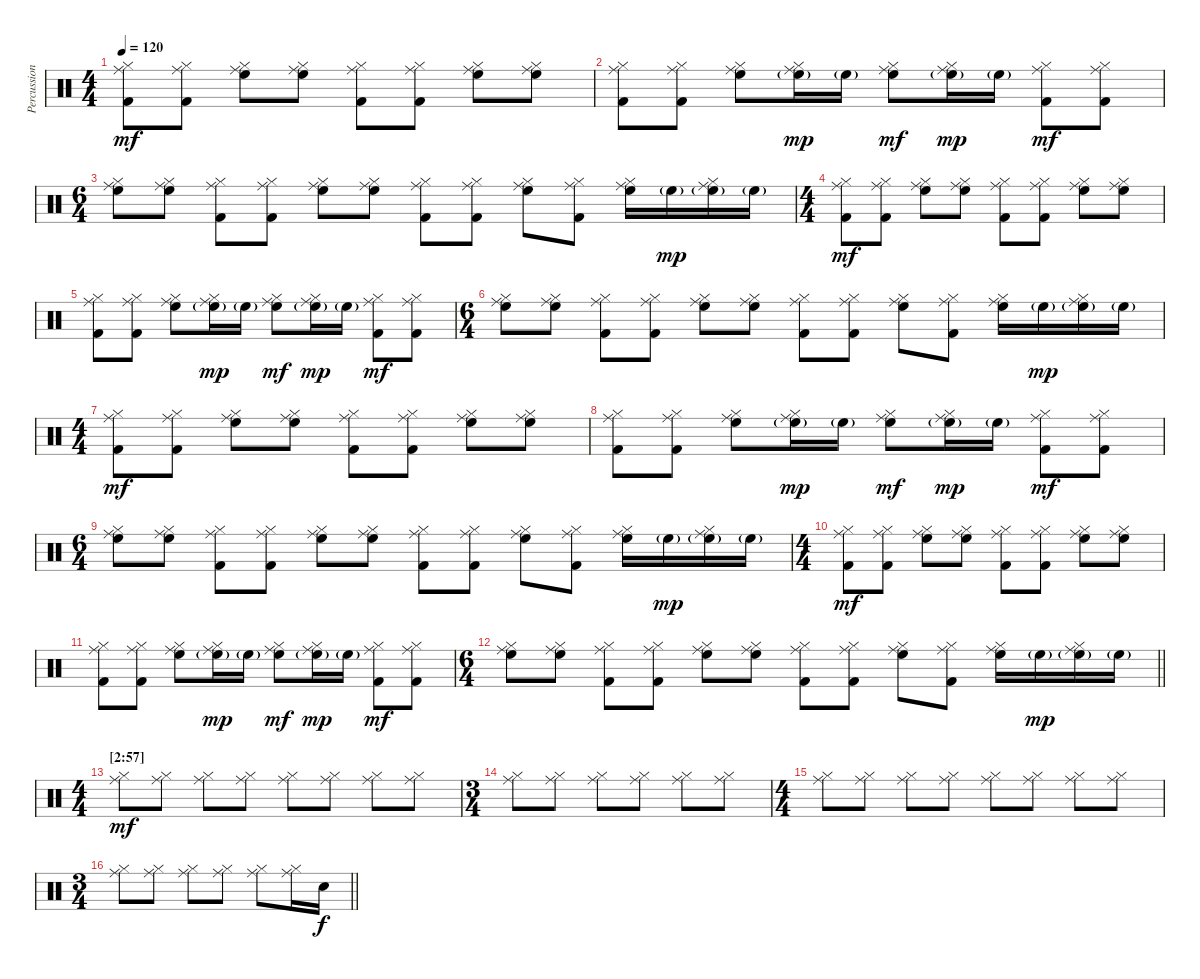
\track ("Percussion" "Percussion") {instrument percussion}
\staff {score}
\articulation defaults
\ts (4 4)
\tempo 120
\clef neutral
\ks c
("Ride (middle)" "Hi-Hat (closed)" "Kick (hit) 2").8{dy mf} ("Ride (middle)" "Hi-Hat (closed)" "Kick (hit) 2").8 ("Ride (middle)" "Hi-Hat (closed)" "High Floor Tom (hit)").8 ("Ride (middle)" "Hi-Hat (closed)" "High Floor Tom (hit)").8 ("Ride (middle)" "Hi-Hat (closed)" "Kick (hit) 2").8 ("Ride (middle)" "Hi-Hat (closed)" "Kick (hit) 2").8 ("Ride (middle)" "Hi-Hat (closed)" "High Floor Tom (hit)").8 ("Ride (middle)" "Hi-Hat (closed)" "High Floor Tom (hit)").8 |
("Ride (middle)" "Hi-Hat (closed)" "Kick (hit) 2").8 ("Ride (middle)" "Hi-Hat (closed)" "Kick (hit) 2").8 ("Ride (middle)" "Hi-Hat (closed)" "High Floor Tom (hit)").8 ("Ride (middle)" "Hi-Hat (closed)" "High Floor Tom (hit)"{g}).16{dy mp} "High Floor Tom (hit)"{g}.16 ("Ride (middle)" "Hi-Hat (closed)" "High Floor Tom (hit)").8{dy mf} ("Ride (middle)" "Hi-Hat (closed)" "High Floor Tom (hit)"{g}).16{dy mp} "High Floor Tom (hit)"{g}.16 ("Ride (middle)" "Hi-Hat (closed)" "Kick (hit) 2").8{dy mf} ("Ride (middle)" "Hi-Hat (closed)" "Kick (hit) 2").8 |
\ts (6 4)
("Ride (middle)" "Hi-Hat (closed)" "High Floor Tom (hit)").8 ("Ride (middle)" "Hi-Hat (closed)" "High Floor Tom (hit)").8 ("Ride (middle)" "Hi-Hat (closed)" "Kick (hit) 2").8 ("Ride (middle)" "Hi-Hat (closed)" "Kick (hit) 2").8 ("Ride (middle)" "Hi-Hat (closed)" "High Floor Tom (hit)").8 ("Ride (middle)" "Hi-Hat (closed)" "High Floor Tom (hit)").8 ("Ride (middle)" "Hi-Hat (closed)" "Kick (hit) 2").8 ("Ride (middle)" "Hi-Hat (closed)" "Kick (hit) 2").8 ("Ride (middle)" "Hi-Hat (closed)" "High Floor Tom (hit)").8 ("Ride (middle)" "Hi-Hat (closed)" "Kick (hit) 2").8 ("Ride (middle)" "Hi-Hat (closed)" "High Floor Tom (hit)").16 "High Floor Tom (hit)"{g}.16{dy mp} ("Ride (middle)" "Hi-Hat (closed)" "High Floor Tom (hit)"{g}).16 "High Floor Tom (hit)"{g}.16 |
\ts (4 4)
("Ride (middle)" "Hi-Hat (closed)" "Kick (hit) 2").8{dy mf} ("Ride (middle)" "Hi-Hat (closed)" "Kick (hit) 2").8 ("Ride (middle)" "Hi-Hat (closed)" "High Floor Tom (hit)").8 ("Ride (middle)" "Hi-Hat (closed)" "High Floor Tom (hit)").8 ("Ride (middle)" "Hi-Hat (closed)" "Kick (hit) 2").8 ("Ride (middle)" "Hi-Hat (closed)" "Kick (hit) 2").8 ("Ride (middle)" "Hi-Hat (closed)" "High Floor Tom (hit)").8 ("Ride (middle)" "Hi-Hat (closed)" "High Floor Tom (hit)").8 |
("Ride (middle)" "Hi-Hat (closed)" "Kick (hit) 2").8 ("Ride (middle)" "Hi-Hat (closed)" "Kick (hit) 2").8 ("Ride (middle)" "Hi-Hat (closed)" "High Floor Tom (hit)").8 ("Ride (middle)" "Hi-Hat (closed)" "High Floor Tom (hit)"{g}).16{dy mp} "High Floor Tom (hit)"{g}.16 ("Ride (middle)" "Hi-Hat (closed)" "High Floor Tom (hit)").8{dy mf} ("Ride (middle)" "Hi-Hat (closed)" "High Floor Tom (hit)"{g}).16{dy mp} "High Floor Tom (hit)"{g}.16 ("Ride (middle)" "Hi-Hat (closed)" "Kick (hit) 2").8{dy mf} ("Ride (middle)" "Hi-Hat (closed)" "Kick (hit) 2").8 |
\ts (6 4)
("Ride (middle)" "Hi-Hat (closed)" "High Floor Tom (hit)").8 ("Ride (middle)" "Hi-Hat (closed)" "High Floor Tom (hit)").8 ("Ride (middle)" "Hi-Hat (closed)" "Kick (hit) 2").8 ("Ride (middle)" "Hi-Hat (closed)" "Kick (hit) 2").8 ("Ride (middle)" "Hi-Hat (closed)" "High Floor Tom (hit)").8 ("Ride (middle)" "Hi-Hat (closed)" "High Floor Tom (hit)").8 ("Ride (middle)" "Hi-Hat (closed)" "Kick (hit) 2").8 ("Ride (middle)" "Hi-Hat (closed)" "Kick (hit) 2").8 ("Ride (middle)" "Hi-Hat (closed)" "High Floor Tom (hit)").8 ("Ride (middle)" "Hi-Hat (closed)" "Kick (hit) 2").8 ("Ride (middle)" "Hi-Hat (closed)" "High Floor Tom (hit)").16 "High Floor Tom (hit)"{g}.16{dy mp} ("Ride (middle)" "Hi-Hat (closed)" "High Floor Tom (hit)"{g}).16 "High Floor Tom (hit)"{g}.16 |
\ts (4 4)
("Ride (middle)" "Hi-Hat (closed)" "Kick (hit) 2").8{dy mf} ("Ride (middle)" "Hi-Hat (closed)" "Kick (hit) 2").8 ("Ride (middle)" "Hi-Hat (closed)" "High Floor Tom (hit)").8 ("Ride (middle)" "Hi-Hat (closed)" "High Floor Tom (hit)").8 ("Ride (middle)" "Hi-Hat (closed)" "Kick (hit) 2").8 ("Ride (middle)" "Hi-Hat (closed)" "Kick (hit) 2").8 ("Ride (middle)" "Hi-Hat (closed)" "High Floor Tom (hit)").8 ("Ride (middle)" "Hi-Hat (closed)" "High Floor Tom (hit)").8 |
("Ride (middle)" "Hi-Hat (closed)" "Kick (hit) 2").8 ("Ride (middle)" "Hi-Hat (closed)" "Kick (hit) 2").8 ("Ride (middle)" "Hi-Hat (closed)" "High Floor Tom (hit)").8 ("Ride (middle)" "Hi-Hat (closed)" "High Floor Tom (hit)"{g}).16{dy mp} "High Floor Tom (hit)"{g}.16 ("Ride (middle)" "Hi-Hat (closed)" "High Floor Tom (hit)").8{dy mf} ("Ride (middle)" "Hi-Hat (closed)" "High Floor Tom (hit)"{g}).16{dy mp} "High Floor Tom (hit)"{g}.16 ("Ride (middle)" "Hi-Hat (closed)" "Kick (hit) 2").8{dy mf} ("Ride (middle)" "Hi-Hat (closed)" "Kick (hit) 2").8 |
\ts (6 4)
("Ride (middle)" "Hi-Hat (closed)" "High Floor Tom (hit)").8 ("Ride (middle)" "Hi-Hat (closed)" "High Floor Tom (hit)").8 ("Ride (middle)" "Hi-Hat (closed)" "Kick (hit) 2").8 ("Ride (middle)" "Hi-Hat (closed)" "Kick (hit) 2").8 ("Ride (middle)" "Hi-Hat (closed)" "High Floor Tom (hit)").8 ("Ride (middle)" "Hi-Hat (closed)" "High Floor Tom (hit)").8 ("Ride (middle)" "Hi-Hat (closed)" "Kick (hit) 2").8 ("Ride (middle)" "Hi-Hat (closed)" "Kick (hit) 2").8 ("Ride (middle)" "Hi-Hat (closed)" "High Floor Tom (hit)").8 ("Ride (middle)" "Hi-Hat (closed)" "Kick (hit) 2").8 ("Ride (middle)" "Hi-Hat (closed)" "High Floor Tom (hit)").16 "High Floor Tom (hit)"{g}.16{dy mp} ("Ride (middle)" "Hi-Hat (closed)" "High Floor Tom (hit)"{g}).16 "High Floor Tom (hit)"{g}.16 |
\ts (4 4)
("Ride (middle)" "Hi-Hat (closed)" "Kick (hit) 2").8{dy mf} ("Ride (middle)" "Hi-Hat (closed)" "Kick (hit) 2").8 ("Ride (middle)" "Hi-Hat (closed)" "High Floor Tom (hit)").8 ("Ride (middle)" "Hi-Hat (closed)" "High Floor Tom (hit)").8 ("Ride (middle)" "Hi-Hat (closed)" "Kick (hit) 2").8 ("Ride (middle)" "Hi-Hat (closed)" "Kick (hit) 2").8 ("Ride (middle)" "Hi-Hat (closed)" "High Floor Tom (hit)").8 ("Ride (middle)" "Hi-Hat (closed)" "High Floor Tom (hit)").8 |
("Ride (middle)" "Hi-Hat (closed)" "Kick (hit) 2").8 ("Ride (middle)" "Hi-Hat (closed)" "Kick (hit) 2").8 ("Ride (middle)" "Hi-Hat (closed)" "High Floor Tom (hit)").8 ("Ride (middle)" "Hi-Hat (closed)" "High Floor Tom (hit)"{g}).16{dy mp} "High Floor Tom (hit)"{g}.16 ("Ride (middle)" "Hi-Hat (closed)" "High Floor Tom (hit)").8{dy mf} ("Ride (middle)" "Hi-Hat (closed)" "High Floor Tom (hit)"{g}).16{dy mp} "High Floor Tom (hit)"{g}.16 ("Ride (middle)" "Hi-Hat (closed)" "Kick (hit) 2").8{dy mf} ("Ride (middle)" "Hi-Hat (closed)" "Kick (hit) 2").8 |
\ts (6 4)
\barLineRight lightlight
("Ride (middle)" "Hi-Hat (closed)" "High Floor Tom (hit)").8 ("Ride (middle)" "Hi-Hat (closed)" "High Floor Tom (hit)").8 ("Ride (middle)" "Hi-Hat (closed)" "Kick (hit) 2").8 ("Ride (middle)" "Hi-Hat (closed)" "Kick (hit) 2").8 ("Ride (middle)" "Hi-Hat (closed)" "High Floor Tom (hit)").8 ("Ride (middle)" "Hi-Hat (closed)" "High Floor Tom (hit)").8 ("Ride (middle)" "Hi-Hat (closed)" "Kick (hit) 2").8 ("Ride (middle)" "Hi-Hat (closed)" "Kick (hit) 2").8 ("Ride (middle)" "Hi-Hat (closed)" "High Floor Tom (hit)").8 ("Ride (middle)" "Hi-Hat (closed)" "Kick (hit) 2").8 ("Ride (middle)" "Hi-Hat (closed)" "High Floor Tom (hit)").16 "High Floor Tom (hit)"{g}.16{dy mp} ("Ride (middle)" "Hi-Hat (closed)" "High Floor Tom (hit)"{g}).16 "High Floor Tom (hit)"{g}.16 |
\ts (4 4)
\section ("" "[2:57]")
("Ride (middle)" "Hi-Hat (closed)").8{dy mf} ("Ride (middle)" "Hi-Hat (closed)").8 ("Ride (middle)" "Hi-Hat (closed)").8 ("Ride (middle)" "Hi-Hat (closed)").8 ("Ride (middle)" "Hi-Hat (closed)").8 ("Ride (middle)" "Hi-Hat (closed)").8 ("Ride (middle)" "Hi-Hat (closed)").8 ("Ride (middle)" "Hi-Hat (closed)").8 |
\ts (3 4)
("Ride (middle)" "Hi-Hat (closed)").8 ("Ride (middle)" "Hi-Hat (closed)").8 ("Ride (middle)" "Hi-Hat (closed)").8 ("Ride (middle)" "Hi-Hat (closed)").8 ("Ride (middle)" "Hi-Hat (closed)").8 ("Ride (middle)" "Hi-Hat (closed)").8 |
\ts (4 4)
("Ride (middle)" "Hi-Hat (closed)").8 ("Ride (middle)" "Hi-Hat (closed)").8 ("Ride (middle)" "Hi-Hat (closed)").8 ("Ride (middle)" "Hi-Hat (closed)").8 ("Ride (middle)" "Hi-Hat (closed)").8 ("Ride (middle)" "Hi-Hat (closed)").8 ("Ride (middle)" "Hi-Hat (closed)").8 ("Ride (middle)" "Hi-Hat (closed)").8 |
\ts (3 4)
\barLineRight lightlight
("Ride (middle)" "Hi-Hat (closed)").8 ("Ride (middle)" "Hi-Hat (closed)").8 ("Ride (middle)" "Hi-Hat (closed)").8 ("Ride (middle)" "Hi-Hat (closed)").8 ("Ride (middle)" "Hi-Hat (closed)").8 ("Ride (middle)" "Hi-Hat (closed)").16 "Electric Snare (hit)".16{dy f}
